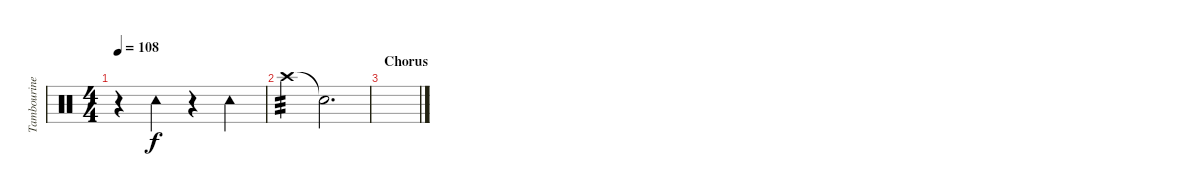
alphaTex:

\track ("Tambourine" "Tambourine") {instrument percussion}
\staff {score}
\articulation defaults
\ts (4 4)
\tempo 108
\clef neutral
\ks c
r.4{dy f} "Tambourine (hit)".4 r.4 "Tambourine (hit)".4 |
"Crash high (hit)".4{tp 3 volume 2} "Snare (hit)"{t}.2{d volume 10} |
\section ("" "Chorus")
